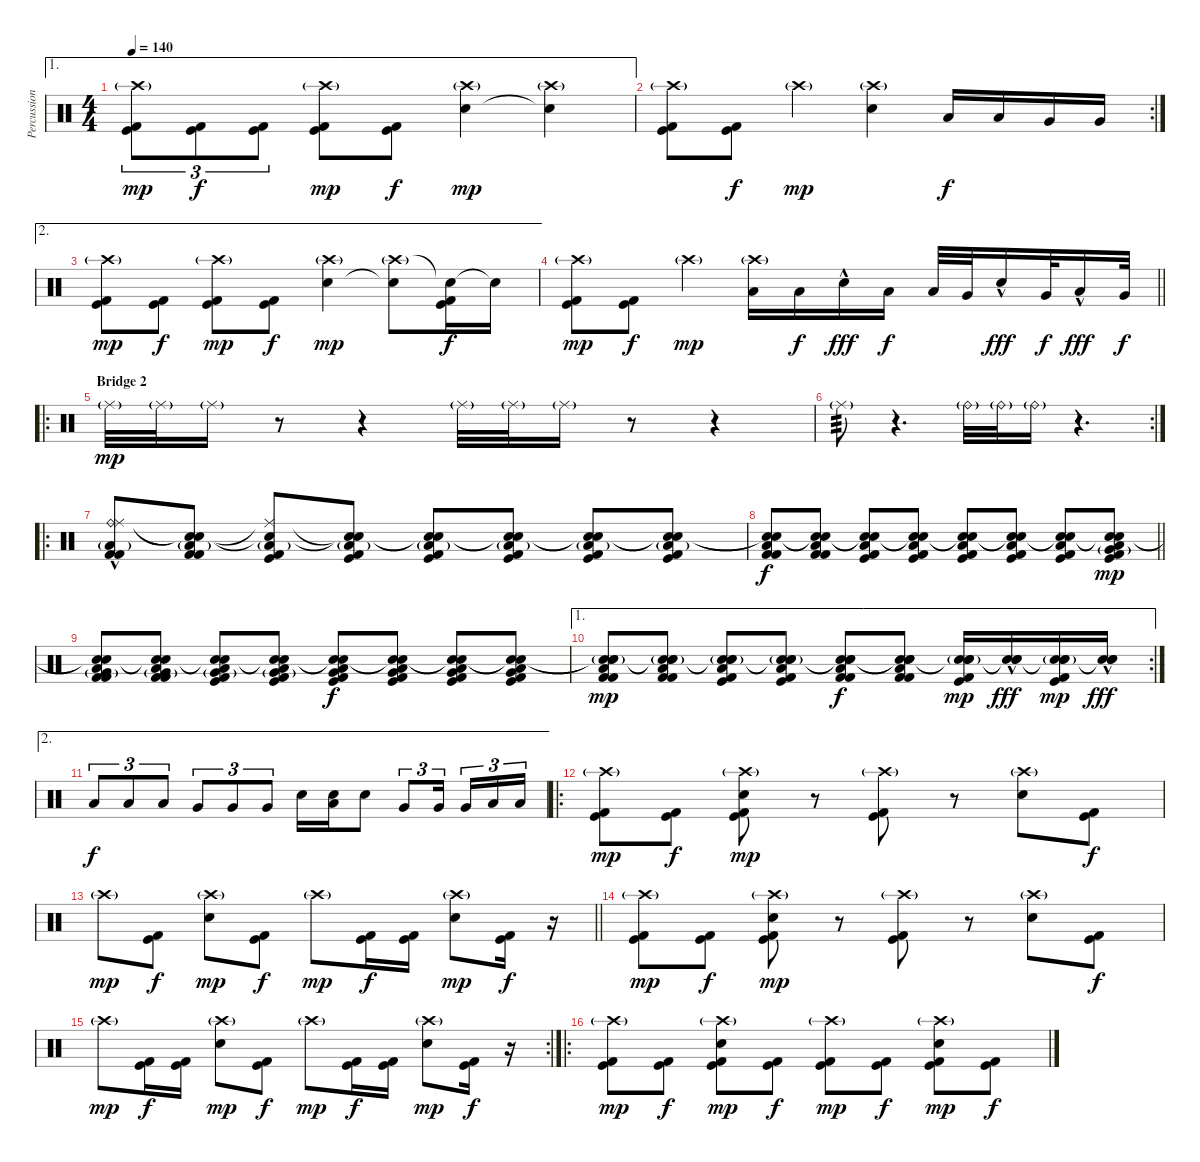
\track ("Percussion" "Percussion") {instrument percussion}
\staff {score}
\articulation defaults
\ae 1
\ts (4 4)
\tempo 140
\clef neutral
\ks c
("Crash high (hit)"{g} "Kick (hit) 2" "Kick (hit)").8{tu (3 2) dy mp} ("Kick (hit) 2" "Kick (hit)").8{tu (3 2) dy f} ("Kick (hit) 2" "Kick (hit)").8{tu (3 2)} ("Crash high (hit)"{g} "Kick (hit) 2" "Kick (hit)").8{dy mp} ("Kick (hit) 2" "Kick (hit)").8{dy f} ("Crash high (hit)"{g} "Electric Snare (hit)").4{dy mp} ("Crash high (hit)"{g} "Snare (hit)"{t}).4 |
\rc 2
("Crash high (hit)"{g} "Kick (hit) 2" "Kick (hit)").8 ("Kick (hit) 2" "Kick (hit)").8{dy f} "Crash high (hit)"{g}.4{dy mp} ("Crash high (hit)"{g} "Electric Snare (hit)").4 "Low Tom (hit)".16{dy f} "Low Tom (hit)".16 "Very Low Tom (hit)".16 "Very Low Tom (hit)".16 |
\ae 2
("Crash high (hit)"{g} "Kick (hit) 2" "Kick (hit)").8{dy mp} ("Kick (hit) 2" "Kick (hit)").8{dy f} ("Crash high (hit)"{g} "Kick (hit) 2" "Kick (hit)").8{dy mp} ("Kick (hit) 2" "Kick (hit)").8{dy f} ("Crash high (hit)"{g} "Electric Snare (hit)").4{dy mp} ("Crash high (hit)"{g} "Snare (hit)"{t}).8 ("Snare (hit)"{t} "Kick (hit) 2" "Kick (hit)").16{dy f} "Snare (hit)"{t}.16 |
\barLineRight lightlight
("Crash high (hit)"{g} "Kick (hit) 2" "Kick (hit)").8{dy mp} ("Kick (hit) 2" "Kick (hit)").8{dy f} "Crash high (hit)"{g}.4{dy mp} ("Crash high (hit)"{g} "Low Tom (hit)").16 "Low Tom (hit)".16{dy f} "Electric Snare (hit)"{hac}.16{dy fff} "Low Tom (hit)".16{dy f} "Low Tom (hit)".32 "Very Low Tom (hit)".32 "Electric Snare (hit)"{hac}.16{dy fff} "Very Low Tom (hit)".32{dy f} "Low Tom (hit)"{hac}.16{dy fff} "Very Low Tom (hit)".32{dy f} |
\ro
\section ("" "Bridge 2")
"Ride (middle)"{g}.32{dy mp} "Ride (middle)"{g}.32 "Ride (middle)"{g}.16 r.8 r.4 "Ride (middle)"{g}.32 "Ride (middle)"{g}.32 "Ride (middle)"{g}.16 r.8 r.4 |
\rc 2 "Ride (middle)"{g}.8{tp 3}
r.4{d} "Ride (bell)"{g}.32 "Ride (bell)"{g}.32 "Ride (bell)"{g}.16 r.4{d} |
\ro
("Ride (bell)"{hac} "Ride (middle)"{hac} "Low Floor Tom (hit)"{g} "Kick (hit) 2" "Kick (hit) 2").8 ("Snare (hit)"{t} "Snare (hit)"{t} "Low Floor Tom (hit)"{g} "Kick (hit) 2" "Kick (hit) 2").8 ("Snare (hit)"{t} "Ride (middle)"{t} "Low Floor Tom (hit)"{g} "Kick (hit) 2" "Kick (hit)").8 ("Snare (hit)"{t} "Snare (hit)"{t} "Low Floor Tom (hit)"{g} "Kick (hit) 2" "Kick (hit)").8 ("Snare (hit)"{t} "Snare (hit)"{t} "Low Floor Tom (hit)"{g} "Kick (hit) 2" "Kick (hit)").8 ("Snare (hit)"{t} "Snare (hit)"{t} "Low Floor Tom (hit)"{g} "Kick (hit) 2" "Kick (hit)").8 ("Snare (hit)"{t} "Snare (hit)"{t} "Low Floor Tom (hit)"{g} "Kick (hit) 2" "Kick (hit)").8 ("Snare (hit)"{t} "Snare (hit)"{t} "Low Floor Tom (hit)"{g} "Kick (hit) 2" "Kick (hit)").8 |
\barLineRight lightlight
("Snare (hit)"{t} "Snare (hit)"{t} "Low Floor Tom (hit)" "Kick (hit) 2" "Kick (hit) 2").8{dy f} ("Snare (hit)"{t} "Snare (hit)"{t} "Low Floor Tom (hit)" "Kick (hit) 2" "Kick (hit) 2").8 ("Snare (hit)"{t} "Snare (hit)"{t} "Low Floor Tom (hit)" "Kick (hit) 2" "Kick (hit)").8 ("Snare (hit)"{t} "Snare (hit)"{t} "Low Floor Tom (hit)" "Kick (hit) 2" "Kick (hit)").8 ("Snare (hit)"{t} "Snare (hit)"{t} "Low Floor Tom (hit)" "Kick (hit) 2" "Kick (hit)").8 ("Snare (hit)"{t} "Snare (hit)"{t} "Low Floor Tom (hit)" "Kick (hit) 2" "Kick (hit)").8 ("Snare (hit)"{t} "Snare (hit)"{t} "Low Floor Tom (hit)" "Kick (hit) 2" "Kick (hit)").8 ("Snare (hit)"{t} "Snare (hit)"{t} "Very Low Tom (hit)"{g} "Low Floor Tom (hit)" "Kick (hit) 2" "Kick (hit)").8{dy mp} |
("Snare (hit)"{t} "Snare (hit)"{t} "Very Low Tom (hit)"{g} "Low Floor Tom (hit)" "Kick (hit) 2" "Kick (hit) 2").8 ("Snare (hit)"{t} "Snare (hit)"{t} "Very Low Tom (hit)"{g} "Low Floor Tom (hit)" "Kick (hit) 2" "Kick (hit) 2").8 ("Snare (hit)"{t} "Snare (hit)"{t} "Very Low Tom (hit)"{g} "Low Floor Tom (hit)" "Kick (hit) 2" "Kick (hit)").8 ("Snare (hit)"{t} "Snare (hit)"{t} "Very Low Tom (hit)"{g} "Low Floor Tom (hit)" "Kick (hit) 2" "Kick (hit)").8 ("Snare (hit)"{t} "Snare (hit)"{t} "Very Low Tom (hit)" "Low Floor Tom (hit)" "Kick (hit) 2" "Kick (hit)").8{dy f} ("Snare (hit)"{t} "Snare (hit)"{t} "Very Low Tom (hit)" "Low Floor Tom (hit)" "Kick (hit) 2" "Kick (hit)").8 ("Snare (hit)"{t} "Snare (hit)"{t} "Very Low Tom (hit)" "Low Floor Tom (hit)" "Kick (hit) 2" "Kick (hit)").8 ("Snare (hit)"{t} "Snare (hit)"{t} "Very Low Tom (hit)" "Low Floor Tom (hit)" "Kick (hit) 2" "Kick (hit)").8 |
\ae 1
\rc 2
("Snare (hit)"{t} "Snare (hit)"{t} "Electric Snare (hit)"{g} "Low Floor Tom (hit)" "Kick (hit) 2" "Kick (hit) 2").8{dy mp} ("Snare (hit)"{t} "Snare (hit)"{t} "Electric Snare (hit)"{g} "Low Floor Tom (hit)" "Kick (hit) 2" "Kick (hit) 2").8 ("Snare (hit)"{t} "Snare (hit)"{t} "Electric Snare (hit)"{g} "Low Floor Tom (hit)" "Kick (hit) 2" "Kick (hit)").8 ("Snare (hit)"{t} "Snare (hit)"{t} "Electric Snare (hit)"{g} "Low Floor Tom (hit)" "Kick (hit) 2" "Kick (hit)").8 ("Snare (hit)"{t} "Snare (hit)"{t} "Electric Snare (hit)" "Low Floor Tom (hit)" "Kick (hit) 2" "Kick (hit) 2").8{dy f} ("Snare (hit)"{t} "Snare (hit)"{t} "Electric Snare (hit)" "Low Floor Tom (hit)" "Kick (hit) 2" "Kick (hit) 2").8 ("Snare (hit)"{t} "Snare (hit)"{t} "Electric Snare (hit)"{g} "Kick (hit) 2" "Kick (hit)").16{dy mp} ("Snare (hit)"{t} "Snare (hit)"{t} "Electric Snare (hit)"{hac}).16{dy fff} ("Snare (hit)"{t} "Snare (hit)"{t} "Electric Snare (hit)"{g} "Kick (hit) 2" "Kick (hit)").16{dy mp} ("Snare (hit)"{t} "Snare (hit)"{t} "Electric Snare (hit)"{hac}).16{dy fff} |
\ae 2 "Low Tom (hit)".8{tu (3 2) dy f} "Low Tom (hit)".8{tu (3 2)} "Low Tom (hit)".8{tu (3 2)} "Very Low Tom (hit)".8{tu (3 2)} "Very Low Tom (hit)".8{tu (3 2)} "Very Low Tom (hit)".8{tu (3 2)} "Electric Snare (hit)".16
("Low Tom (hit)" "Electric Snare (hit)").16 "Electric Snare (hit)".8 "Very Low Tom (hit)".8{tu (3 2)} "Very Low Tom (hit)".16{tu (3 2) beam splitsecondary} "Very Low Tom (hit)".16{tu (3 2)} "Low Tom (hit)".16{tu (3 2)} "Low Tom (hit)".16{tu (3 2)} |
\ro
("Crash high (hit)"{g} "Kick (hit) 2" "Kick (hit)").8{dy mp} ("Kick (hit) 2" "Kick (hit)").8{dy f} ("Crash high (hit)"{g} "Electric Snare (hit)" "Kick (hit) 2" "Kick (hit)").8{dy mp} r.8 ("Crash high (hit)"{g} "Kick (hit) 2" "Kick (hit)").8 r.8 ("Crash high (hit)"{g} "Electric Snare (hit)").8 ("Kick (hit) 2" "Kick (hit)").8{dy f} |
\barLineRight lightlight "Crash high (hit)"{g}.8{dy mp}
("Kick (hit) 2" "Kick (hit)").8{dy f} ("Crash high (hit)"{g} "Electric Snare (hit)").8{dy mp} ("Kick (hit) 2" "Kick (hit)").8{dy f} "Crash high (hit)"{g}.8{dy mp} ("Kick (hit) 2" "Kick (hit)").16{dy f} ("Kick (hit) 2" "Kick (hit)").16 ("Crash high (hit)"{g} "Electric Snare (hit)").8{dy mp} ("Kick (hit) 2" "Kick (hit)").16{dy f} r.16 |
("Crash high (hit)"{g} "Kick (hit) 2" "Kick (hit)").8{dy mp} ("Kick (hit) 2" "Kick (hit)").8{dy f} ("Crash high (hit)"{g} "Electric Snare (hit)" "Kick (hit) 2" "Kick (hit)").8{dy mp} r.8 ("Crash high (hit)"{g} "Kick (hit) 2" "Kick (hit)").8 r.8 ("Crash high (hit)"{g} "Electric Snare (hit)").8 ("Kick (hit) 2" "Kick (hit)").8{dy f} |
\rc 2 "Crash high (hit)"{g}.8{dy mp}
("Kick (hit) 2" "Kick (hit)").16{dy f} ("Kick (hit) 2" "Kick (hit)").16 ("Crash high (hit)"{g} "Electric Snare (hit)").8{dy mp} ("Kick (hit) 2" "Kick (hit)").8{dy f} "Crash high (hit)"{g}.8{dy mp} ("Kick (hit) 2" "Kick (hit)").16{dy f} ("Kick (hit) 2" "Kick (hit)").16 ("Crash high (hit)"{g} "Electric Snare (hit)").8{dy mp} ("Kick (hit) 2" "Kick (hit)").16{dy f} r.16 |
\ro
("Crash high (hit)"{g} "Kick (hit) 2" "Kick (hit)").8{dy mp} ("Kick (hit) 2" "Kick (hit)").8{dy f} ("Crash high (hit)"{g} "Electric Snare (hit)" "Kick (hit) 2" "Kick (hit)").8{dy mp} ("Kick (hit) 2" "Kick (hit)").8{dy f} ("Crash high (hit)"{g} "Kick (hit) 2" "Kick (hit)").8{dy mp} ("Kick (hit) 2" "Kick (hit)").8{dy f} ("Crash high (hit)"{g} "Electric Snare (hit)" "Kick (hit) 2" "Kick (hit)").8{dy mp} ("Kick (hit) 2" "Kick (hit)").8{dy f}
